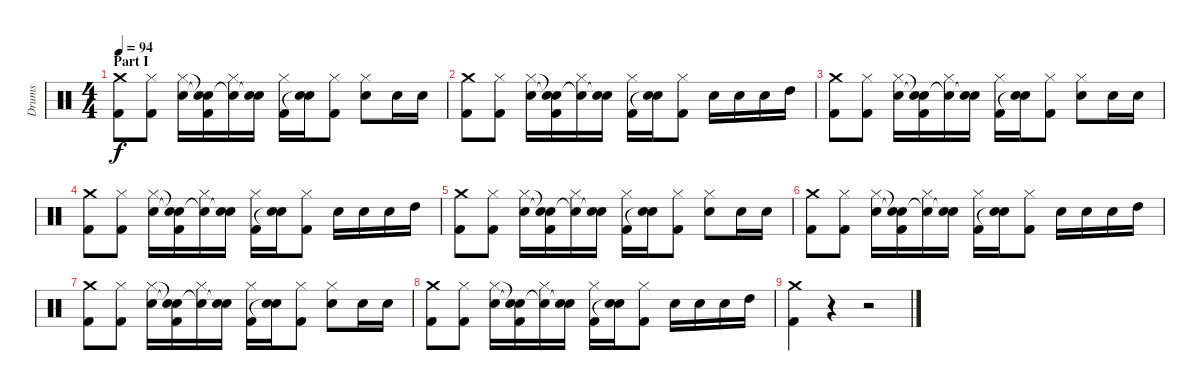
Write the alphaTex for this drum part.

\track ("Drums" "Drums") {instrument percussion}
\staff {score}
\articulation defaults
\ts (4 4)
\section ("" "Part I")
\tempo 94
\clef neutral
\ks c
("Crash medium (hit)" "Kick (hit) 2").8{dy f} ("Hi-Hat (closed)" "Kick (hit) 2").8 ("Hi-Hat (closed)" "Electric Snare (hit)").16 ("Snare (hit)"{t} "Snare (hit)"{t} "Kick (hit) 2").16 ("Hi-Hat (closed)" "Snare (hit)"{t}).16 ("Electric Snare (hit)" "Snare (hit)"{t}).16 ("Hi-Hat (closed)" "Kick (hit) 2").16 ("Electric Snare (hit)" "Snare (hit)"{t}).16 ("Hi-Hat (closed)" "Kick (hit) 2").8 ("Hi-Hat (closed)" "Electric Snare (hit)").8 "Electric Snare (hit)".16 "Electric Snare (hit)".16 |
("Crash medium (hit)" "Kick (hit) 2").8 ("Hi-Hat (closed)" "Kick (hit) 2").8 ("Hi-Hat (closed)" "Electric Snare (hit)").16 ("Snare (hit)"{t} "Snare (hit)"{t} "Kick (hit) 2").16 ("Hi-Hat (closed)" "Snare (hit)"{t}).16 ("Electric Snare (hit)" "Snare (hit)"{t}).16 ("Hi-Hat (closed)" "Kick (hit) 2").16 ("Electric Snare (hit)" "Snare (hit)"{t}).16 ("Hi-Hat (closed)" "Kick (hit) 2").8 "Electric Snare (hit)".16 "Electric Snare (hit)".16 "Electric Snare (hit)".16 "High Tom (hit)".16 |
("Crash medium (hit)" "Kick (hit) 2").8 ("Hi-Hat (closed)" "Kick (hit) 2").8 ("Hi-Hat (closed)" "Electric Snare (hit)").16 ("Snare (hit)"{t} "Snare (hit)"{t} "Kick (hit) 2").16 ("Hi-Hat (closed)" "Snare (hit)"{t}).16 ("Electric Snare (hit)" "Snare (hit)"{t}).16 ("Hi-Hat (closed)" "Kick (hit) 2").16 ("Electric Snare (hit)" "Snare (hit)"{t}).16 ("Hi-Hat (closed)" "Kick (hit) 2").8 ("Hi-Hat (closed)" "Electric Snare (hit)").8 "Electric Snare (hit)".16 "Electric Snare (hit)".16 |
("Crash medium (hit)" "Kick (hit) 2").8 ("Hi-Hat (closed)" "Kick (hit) 2").8 ("Hi-Hat (closed)" "Electric Snare (hit)").16 ("Snare (hit)"{t} "Snare (hit)"{t} "Kick (hit) 2").16 ("Hi-Hat (closed)" "Snare (hit)"{t}).16 ("Electric Snare (hit)" "Snare (hit)"{t}).16 ("Hi-Hat (closed)" "Kick (hit) 2").16 ("Electric Snare (hit)" "Snare (hit)"{t}).16 ("Hi-Hat (closed)" "Kick (hit) 2").8 "Electric Snare (hit)".16 "Electric Snare (hit)".16 "Electric Snare (hit)".16 "High Tom (hit)".16 |
("Crash medium (hit)" "Kick (hit) 2").8 ("Hi-Hat (closed)" "Kick (hit) 2").8 ("Hi-Hat (closed)" "Electric Snare (hit)").16 ("Snare (hit)"{t} "Snare (hit)"{t} "Kick (hit) 2").16 ("Hi-Hat (closed)" "Snare (hit)"{t}).16 ("Electric Snare (hit)" "Snare (hit)"{t}).16 ("Hi-Hat (closed)" "Kick (hit) 2").16 ("Electric Snare (hit)" "Snare (hit)"{t}).16 ("Hi-Hat (closed)" "Kick (hit) 2").8 ("Hi-Hat (closed)" "Electric Snare (hit)").8 "Electric Snare (hit)".16 "Electric Snare (hit)".16 |
("Crash medium (hit)" "Kick (hit) 2").8 ("Hi-Hat (closed)" "Kick (hit) 2").8 ("Hi-Hat (closed)" "Electric Snare (hit)").16 ("Snare (hit)"{t} "Snare (hit)"{t} "Kick (hit) 2").16 ("Hi-Hat (closed)" "Snare (hit)"{t}).16 ("Electric Snare (hit)" "Snare (hit)"{t}).16 ("Hi-Hat (closed)" "Kick (hit) 2").16 ("Electric Snare (hit)" "Snare (hit)"{t}).16 ("Hi-Hat (closed)" "Kick (hit) 2").8 "Electric Snare (hit)".16 "Electric Snare (hit)".16 "Electric Snare (hit)".16 "High Tom (hit)".16 |
("Crash medium (hit)" "Kick (hit) 2").8 ("Hi-Hat (closed)" "Kick (hit) 2").8 ("Hi-Hat (closed)" "Electric Snare (hit)").16 ("Snare (hit)"{t} "Snare (hit)"{t} "Kick (hit) 2").16 ("Hi-Hat (closed)" "Snare (hit)"{t}).16 ("Electric Snare (hit)" "Snare (hit)"{t}).16 ("Hi-Hat (closed)" "Kick (hit) 2").16 ("Electric Snare (hit)" "Snare (hit)"{t}).16 ("Hi-Hat (closed)" "Kick (hit) 2").8 ("Hi-Hat (closed)" "Electric Snare (hit)").8 "Electric Snare (hit)".16 "Electric Snare (hit)".16 |
("Crash medium (hit)" "Kick (hit) 2").8 ("Hi-Hat (closed)" "Kick (hit) 2").8 ("Hi-Hat (closed)" "Electric Snare (hit)").16 ("Snare (hit)"{t} "Snare (hit)"{t} "Kick (hit) 2").16 ("Hi-Hat (closed)" "Snare (hit)"{t}).16 ("Electric Snare (hit)" "Snare (hit)"{t}).16 ("Hi-Hat (closed)" "Kick (hit) 2").16 ("Electric Snare (hit)" "Snare (hit)"{t}).16 ("Hi-Hat (closed)" "Kick (hit) 2").8 "Electric Snare (hit)".16 "Electric Snare (hit)".16 "Electric Snare (hit)".16 "High Tom (hit)".16 |
("Crash medium (hit)" "Kick (hit) 2").4 r.4 r.2
